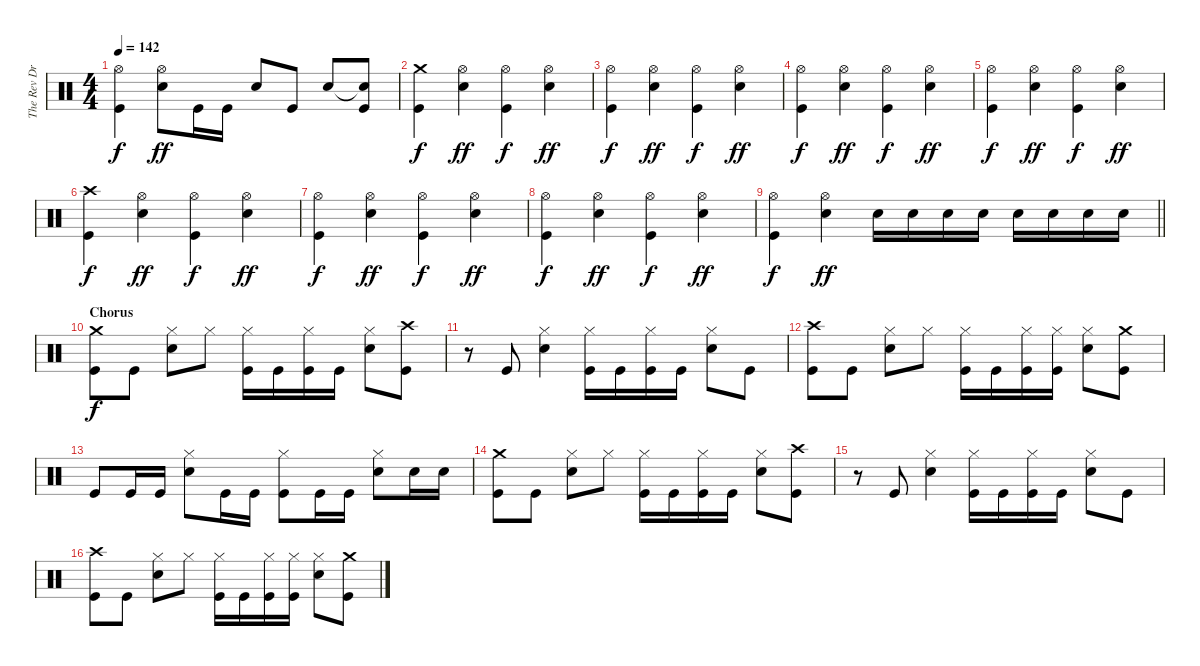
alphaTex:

\track ("The Rev Drums" "The Rev Dr") {instrument percussion}
\staff {score}
\articulation defaults
\ts (4 4)
\tempo 142
\clef neutral
\ks c
("Hi-Hat (open)" "Kick (hit)").4{dy f} ("Hi-Hat (open)" "Electric Snare (hit)").8{dy ff} "Kick (hit)".16 "Kick (hit)".16 "Electric Snare (hit)".8 "Kick (hit)".8 "Electric Snare (hit)".8 ("Snare (hit)"{t} "Kick (hit)").8 |
("Crash medium (hit)" "Kick (hit)").4{dy f} ("Hi-Hat (open)" "Electric Snare (hit)").4{dy ff} ("Hi-Hat (open)" "Kick (hit)").4{dy f} ("Hi-Hat (open)" "Electric Snare (hit)").4{dy ff} |
("Hi-Hat (open)" "Kick (hit)").4{dy f} ("Hi-Hat (open)" "Electric Snare (hit)").4{dy ff} ("Hi-Hat (open)" "Kick (hit)").4{dy f} ("Hi-Hat (open)" "Electric Snare (hit)").4{dy ff} |
("Hi-Hat (open)" "Kick (hit)").4{dy f} ("Hi-Hat (open)" "Electric Snare (hit)").4{dy ff} ("Hi-Hat (open)" "Kick (hit)").4{dy f} ("Hi-Hat (open)" "Electric Snare (hit)").4{dy ff} |
("Hi-Hat (open)" "Kick (hit)").4{dy f} ("Hi-Hat (open)" "Electric Snare (hit)").4{dy ff} ("Hi-Hat (open)" "Kick (hit)").4{dy f} ("Hi-Hat (open)" "Electric Snare (hit)").4{dy ff} |
("Crash high (hit)" "Kick (hit)").4{dy f} ("Hi-Hat (open)" "Electric Snare (hit)").4{dy ff} ("Hi-Hat (open)" "Kick (hit)").4{dy f} ("Hi-Hat (open)" "Electric Snare (hit)").4{dy ff} |
("Hi-Hat (open)" "Kick (hit)").4{dy f} ("Hi-Hat (open)" "Electric Snare (hit)").4{dy ff} ("Hi-Hat (open)" "Kick (hit)").4{dy f} ("Hi-Hat (open)" "Electric Snare (hit)").4{dy ff} |
("Hi-Hat (open)" "Kick (hit)").4{dy f} ("Hi-Hat (open)" "Electric Snare (hit)").4{dy ff} ("Hi-Hat (open)" "Kick (hit)").4{dy f} ("Hi-Hat (open)" "Electric Snare (hit)").4{dy ff} |
\barLineRight lightlight
("Hi-Hat (open)" "Kick (hit)").4{dy f} ("Hi-Hat (open)" "Electric Snare (hit)").4{dy ff} "Electric Snare (hit)".16 "Electric Snare (hit)".16 "Electric Snare (hit)".16 "Electric Snare (hit)".16 "Electric Snare (hit)".16 "Electric Snare (hit)".16 "Electric Snare (hit)".16 "Electric Snare (hit)".16 |
\section ("" "Chorus")
("Crash medium (hit)" "Kick (hit)").8{dy f} "Kick (hit)".8 ("Hi-Hat (closed)" "Electric Snare (hit)").8 "Hi-Hat (closed)".8 ("Hi-Hat (closed)" "Kick (hit)").16 "Kick (hit)".16 ("Hi-Hat (closed)" "Kick (hit)").16 "Kick (hit)".16 ("Hi-Hat (closed)" "Electric Snare (hit)").8 ("Crash high (hit)" "Kick (hit)").8 |
r.8 "Kick (hit)".8 ("Hi-Hat (closed)" "Electric Snare (hit)").4 ("Hi-Hat (closed)" "Kick (hit)").16 "Kick (hit)".16 ("Hi-Hat (closed)" "Kick (hit)").16 "Kick (hit)".16 ("Hi-Hat (closed)" "Electric Snare (hit)").8 "Kick (hit)".8 |
("Crash high (hit)" "Kick (hit)").8 "Kick (hit)".8 ("Hi-Hat (closed)" "Electric Snare (hit)").8 "Hi-Hat (closed)".8 ("Hi-Hat (closed)" "Kick (hit)").16 "Kick (hit)".16 ("Hi-Hat (closed)" "Kick (hit)").16 ("Hi-Hat (closed)" "Kick (hit)").16 ("Hi-Hat (closed)" "Electric Snare (hit)").8 ("Crash medium (hit)" "Kick (hit)").8 |
"Kick (hit)".8 "Kick (hit)".16 "Kick (hit)".16 ("Hi-Hat (closed)" "Electric Snare (hit)").8 "Kick (hit)".16 "Kick (hit)".16 ("Hi-Hat (closed)" "Kick (hit)").8 "Kick (hit)".16 "Kick (hit)".16 ("Hi-Hat (closed)" "Electric Snare (hit)").8 "Electric Snare (hit)".16 "Electric Snare (hit)".16 |
("Crash medium (hit)" "Kick (hit)").8 "Kick (hit)".8 ("Hi-Hat (closed)" "Electric Snare (hit)").8 "Hi-Hat (closed)".8 ("Hi-Hat (closed)" "Kick (hit)").16 "Kick (hit)".16 ("Hi-Hat (closed)" "Kick (hit)").16 "Kick (hit)".16 ("Hi-Hat (closed)" "Electric Snare (hit)").8 ("Crash high (hit)" "Kick (hit)").8 |
r.8 "Kick (hit)".8 ("Hi-Hat (closed)" "Electric Snare (hit)").4 ("Hi-Hat (closed)" "Kick (hit)").16 "Kick (hit)".16 ("Hi-Hat (closed)" "Kick (hit)").16 "Kick (hit)".16 ("Hi-Hat (closed)" "Electric Snare (hit)").8 "Kick (hit)".8 |
("Crash high (hit)" "Kick (hit)").8 "Kick (hit)".8 ("Hi-Hat (closed)" "Electric Snare (hit)").8 "Hi-Hat (closed)".8 ("Hi-Hat (closed)" "Kick (hit)").16 "Kick (hit)".16 ("Hi-Hat (closed)" "Kick (hit)").16 ("Hi-Hat (closed)" "Kick (hit)").16 ("Hi-Hat (closed)" "Electric Snare (hit)").8 ("Crash medium (hit)" "Kick (hit)").8
